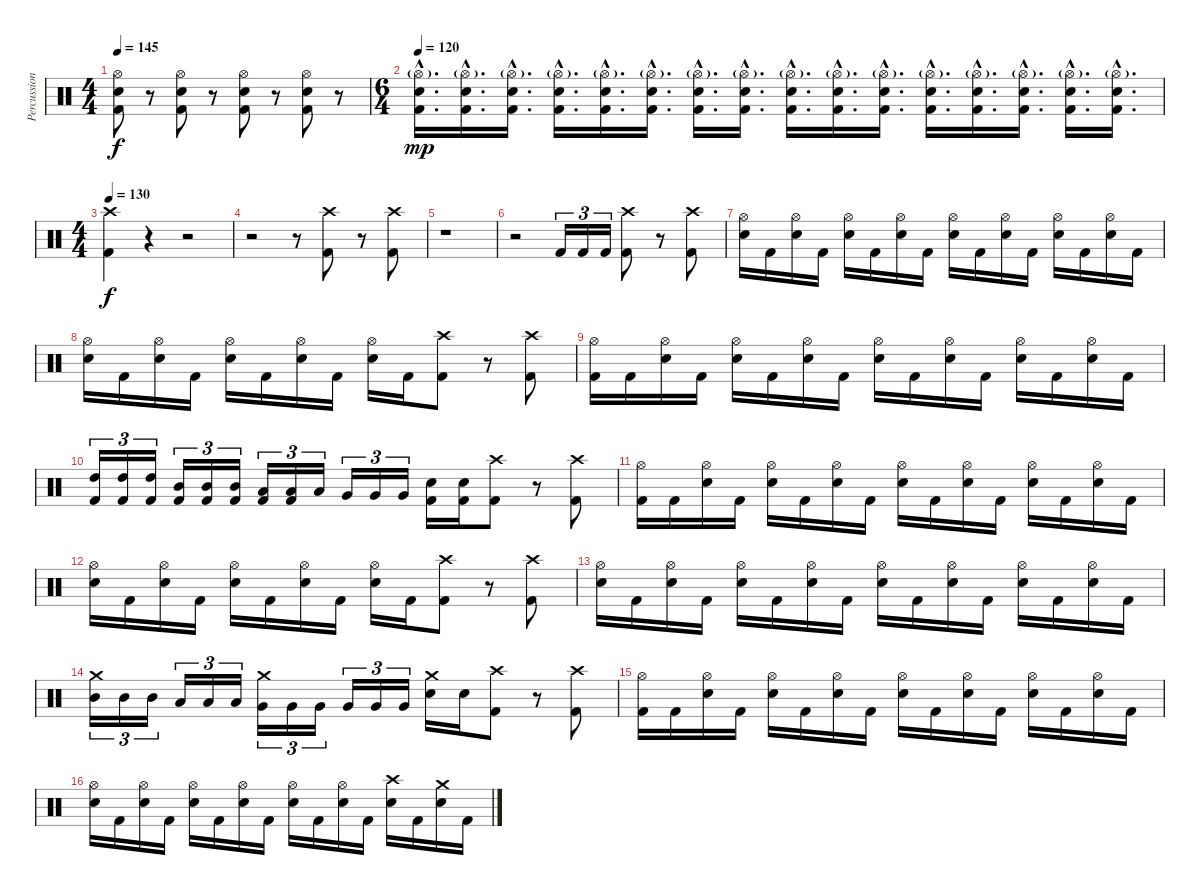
\track ("Percussion" "Percussion") {instrument percussion}
\staff {score}
\articulation defaults
\ts (4 4)
\tempo 145
\clef neutral
\ks c
("Hi-Hat (open)" "Snare (hit) 2" "Kick (hit) 2").8{dy f} r.8 ("Hi-Hat (open)" "Snare (hit) 2" "Kick (hit) 2").8 r.8 ("Hi-Hat (open)" "Snare (hit) 2" "Kick (hit) 2").8 r.8 ("Hi-Hat (open)" "Snare (hit) 2" "Kick (hit) 2").8 r.8 |
\ts (6 4)
\tempo 120
("Hi-Hat (open)"{g hac} "Snare (hit) 2"{hac} "Kick (hit) 2"{hac}).16{d dy mp} ("Hi-Hat (open)"{g hac} "Snare (hit) 2"{hac} "Kick (hit) 2"{hac}).16{d} ("Hi-Hat (open)"{g hac} "Snare (hit) 2"{hac} "Kick (hit) 2"{hac}).16{d} ("Hi-Hat (open)"{g hac} "Snare (hit) 2"{hac} "Kick (hit) 2"{hac}).16{d} ("Hi-Hat (open)"{g hac} "Snare (hit) 2"{hac} "Kick (hit) 2"{hac}).16{d} ("Hi-Hat (open)"{g hac} "Snare (hit) 2"{hac} "Kick (hit) 2"{hac}).16{d} ("Hi-Hat (open)"{g hac} "Snare (hit) 2"{hac} "Kick (hit) 2"{hac}).16{d} ("Hi-Hat (open)"{g hac} "Snare (hit) 2"{hac} "Kick (hit) 2"{hac}).16{d} ("Hi-Hat (open)"{g hac} "Snare (hit) 2"{hac} "Kick (hit) 2"{hac}).16{d} ("Hi-Hat (open)"{g hac} "Snare (hit) 2"{hac} "Kick (hit) 2"{hac}).16{d} ("Hi-Hat (open)"{g hac} "Snare (hit) 2"{hac} "Kick (hit) 2"{hac}).16{d} ("Hi-Hat (open)"{g hac} "Snare (hit) 2"{hac} "Kick (hit) 2"{hac}).16{d} ("Hi-Hat (open)"{g hac} "Snare (hit) 2"{hac} "Kick (hit) 2"{hac}).16{d} ("Hi-Hat (open)"{g hac} "Snare (hit) 2"{hac} "Kick (hit) 2"{hac}).16{d} ("Hi-Hat (open)"{g hac} "Snare (hit) 2"{hac} "Kick (hit) 2"{hac}).16{d} ("Hi-Hat (open)"{g hac} "Snare (hit) 2"{hac} "Kick (hit) 2"{hac}).16{d} |
\ts (4 4)
\tempo 130
("Crash high (hit)" "Kick (hit) 2").4{dy f} r.4 r.2 |
r.2 r.8 ("Crash high (hit)" "Kick (hit) 2").8 r.8 ("Crash high (hit)" "Kick (hit) 2").8 |
r.1 |
r.2 "Kick (hit) 2".16{tu (3 2)} "Kick (hit) 2".16{tu (3 2)} "Kick (hit) 2".16{tu (3 2)} ("Crash high (hit)" "Kick (hit) 2").8 r.8 ("Crash high (hit)" "Kick (hit) 2").8 |
("Hi-Hat (open)" "Snare (hit) 2").16 "Kick (hit) 2".16 ("Hi-Hat (open)" "Snare (hit) 2").16 "Kick (hit) 2".16 ("Hi-Hat (open)" "Snare (hit) 2").16 "Kick (hit) 2".16 ("Hi-Hat (open)" "Snare (hit) 2").16 "Kick (hit) 2".16 ("Hi-Hat (open)" "Snare (hit) 2").16 "Kick (hit) 2".16 ("Hi-Hat (open)" "Snare (hit) 2").16 "Kick (hit) 2".16 ("Hi-Hat (open)" "Snare (hit) 2").16 "Kick (hit) 2".16 ("Hi-Hat (open)" "Snare (hit) 2").16 "Kick (hit) 2".16 |
("Hi-Hat (open)" "Snare (hit) 2").16 "Kick (hit) 2".16 ("Hi-Hat (open)" "Snare (hit) 2").16 "Kick (hit) 2".16 ("Hi-Hat (open)" "Snare (hit) 2").16 "Kick (hit) 2".16 ("Hi-Hat (open)" "Snare (hit) 2").16 "Kick (hit) 2".16 ("Hi-Hat (open)" "Snare (hit) 2").16 "Kick (hit) 2".16 ("Crash high (hit)" "Kick (hit) 2").8 r.8 ("Crash high (hit)" "Kick (hit) 2").8 |
("Hi-Hat (open)" "Kick (hit) 2").16 "Kick (hit) 2".16 ("Hi-Hat (open)" "Snare (hit) 2").16 "Kick (hit) 2".16 ("Hi-Hat (open)" "Snare (hit) 2").16 "Kick (hit) 2".16 ("Hi-Hat (open)" "Snare (hit) 2").16 "Kick (hit) 2".16 ("Hi-Hat (open)" "Snare (hit) 2").16 "Kick (hit) 2".16 ("Hi-Hat (open)" "Snare (hit) 2").16 "Kick (hit) 2".16 ("Hi-Hat (open)" "Snare (hit) 2").16 "Kick (hit) 2".16 ("Hi-Hat (open)" "Snare (hit) 2").16 "Kick (hit) 2".16 |
("High Tom (hit)" "Kick (hit) 2").16{tu (3 2)} ("High Tom (hit)" "Kick (hit) 2").16{tu (3 2)} ("High Tom (hit)" "Kick (hit) 2").16{tu (3 2)} ("Mid Tom (hit)" "Kick (hit) 2").16{tu (3 2)} ("Mid Tom (hit)" "Kick (hit) 2").16{tu (3 2)} ("Mid Tom (hit)" "Kick (hit) 2").16{tu (3 2)} ("Low Tom (hit)" "Kick (hit) 2").16{tu (3 2)} ("Low Tom (hit)" "Kick (hit) 2").16{tu (3 2)} "Low Tom (hit)".16{tu (3 2)} "Very Low Tom (hit)".16{tu (3 2)} "Very Low Tom (hit)".16{tu (3 2)} "Very Low Tom (hit)".16{tu (3 2)} ("Snare (hit) 2" "Kick (hit) 2").16 ("Snare (hit) 2" "Kick (hit) 2").16 ("Crash high (hit)" "Kick (hit) 2").8 r.8 ("Crash high (hit)" "Kick (hit) 2").8 |
("Hi-Hat (open)" "Kick (hit) 2").16 "Kick (hit) 2".16 ("Hi-Hat (open)" "Snare (hit) 2").16 "Kick (hit) 2".16 ("Hi-Hat (open)" "Snare (hit) 2").16 "Kick (hit) 2".16 ("Hi-Hat (open)" "Snare (hit) 2").16 "Kick (hit) 2".16 ("Hi-Hat (open)" "Snare (hit) 2").16 "Kick (hit) 2".16 ("Hi-Hat (open)" "Snare (hit) 2").16 "Kick (hit) 2".16 ("Hi-Hat (open)" "Snare (hit) 2").16 "Kick (hit) 2".16 ("Hi-Hat (open)" "Snare (hit) 2").16 "Kick (hit) 2".16 |
("Hi-Hat (open)" "Snare (hit) 2").16 "Kick (hit) 2".16 ("Hi-Hat (open)" "Snare (hit) 2").16 "Kick (hit) 2".16 ("Hi-Hat (open)" "Snare (hit) 2").16 "Kick (hit) 2".16 ("Hi-Hat (open)" "Snare (hit) 2").16 "Kick (hit) 2".16 ("Hi-Hat (open)" "Snare (hit) 2").16 "Kick (hit) 2".16 ("Crash high (hit)" "Kick (hit) 2").8 r.8 ("Crash high (hit)" "Kick (hit) 2").8 |
("Hi-Hat (open)" "Snare (hit) 2").16 "Kick (hit) 2".16 ("Hi-Hat (open)" "Snare (hit) 2").16 "Kick (hit) 2".16 ("Hi-Hat (open)" "Snare (hit) 2").16 "Kick (hit) 2".16 ("Hi-Hat (open)" "Snare (hit) 2").16 "Kick (hit) 2".16 ("Hi-Hat (open)" "Snare (hit) 2").16 "Kick (hit) 2".16 ("Hi-Hat (open)" "Snare (hit) 2").16 "Kick (hit) 2".16 ("Hi-Hat (open)" "Snare (hit) 2").16 "Kick (hit) 2".16 ("Hi-Hat (open)" "Snare (hit) 2").16 "Kick (hit) 2".16 |
("Crash medium (hit)" "Mid Tom (hit)").16{tu (3 2)} "Mid Tom (hit)".16{tu (3 2)} "Mid Tom (hit)".16{tu (3 2)} "Low Tom (hit)".16{tu (3 2)} "Low Tom (hit)".16{tu (3 2)} "Low Tom (hit)".16{tu (3 2)} ("Crash medium (hit)" "Very Low Tom (hit)").16{tu (3 2)} "Very Low Tom (hit)".16{tu (3 2)} "Very Low Tom (hit)".16{tu (3 2)} "Very Low Tom (hit)".16{tu (3 2)} "Very Low Tom (hit)".16{tu (3 2)} "Very Low Tom (hit)".16{tu (3 2)} ("Crash medium (hit)" "Snare (hit) 2").16 "Snare (hit) 2".16 ("Crash high (hit)" "Kick (hit) 2").8 r.8 ("Crash high (hit)" "Kick (hit) 2").8 |
("Hi-Hat (open)" "Kick (hit) 2").16 "Kick (hit) 2".16 ("Hi-Hat (open)" "Snare (hit) 2").16 "Kick (hit) 2".16 ("Hi-Hat (open)" "Snare (hit) 2").16 "Kick (hit) 2".16 ("Hi-Hat (open)" "Snare (hit) 2").16 "Kick (hit) 2".16 ("Hi-Hat (open)" "Snare (hit) 2").16 "Kick (hit) 2".16 ("Hi-Hat (open)" "Snare (hit) 2").16 "Kick (hit) 2".16 ("Hi-Hat (open)" "Snare (hit) 2").16 "Kick (hit) 2".16 ("Hi-Hat (open)" "Snare (hit) 2").16 "Kick (hit) 2".16 |
("Hi-Hat (open)" "Snare (hit) 2").16 "Kick (hit) 2".16 ("Hi-Hat (open)" "Snare (hit) 2").16 "Kick (hit) 2".16 ("Hi-Hat (open)" "Snare (hit) 2").16 "Kick (hit) 2".16 ("Hi-Hat (open)" "Snare (hit) 2").16 "Kick (hit) 2".16 ("Hi-Hat (open)" "Snare (hit) 2").16 "Kick (hit) 2".16 ("Hi-Hat (open)" "Snare (hit) 2").16 "Kick (hit) 2".16 ("Crash high (hit)" "Snare (hit) 2").16 "Kick (hit) 2".16 ("Crash medium (hit)" "Snare (hit) 2").16 "Kick (hit) 2".16
